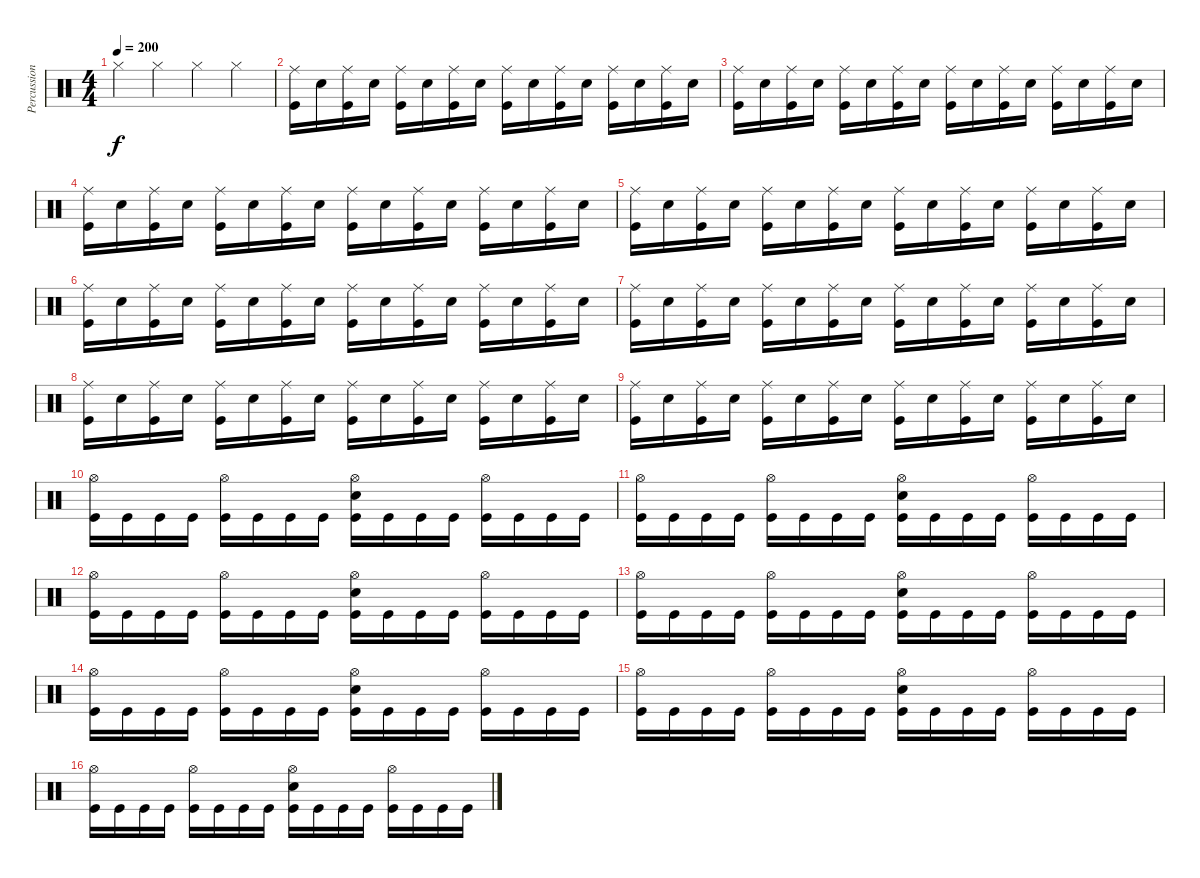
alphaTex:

\track ("Percussion" "Percussion") {instrument percussion}
\staff {score}
\articulation defaults
\ts (4 4)
\tempo 200
\clef neutral
\ks c "Hi-Hat (closed)".4{dy f} "Hi-Hat (closed)".4 "Hi-Hat (closed)".4 "Hi-Hat (closed)".4
|
("Ride (middle)" "Kick (hit)").16 "Electric Snare (hit)".16 ("Ride (middle)" "Kick (hit)").16 "Electric Snare (hit)".16 ("Ride (middle)" "Kick (hit)").16 "Electric Snare (hit)".16 ("Ride (middle)" "Kick (hit)").16 "Electric Snare (hit)".16 ("Ride (middle)" "Kick (hit)").16 "Electric Snare (hit)".16 ("Ride (middle)" "Kick (hit)").16 "Electric Snare (hit)".16 ("Ride (middle)" "Kick (hit)").16 "Electric Snare (hit)".16 ("Ride (middle)" "Kick (hit)").16 "Electric Snare (hit)".16 |
("Ride (middle)" "Kick (hit)").16 "Electric Snare (hit)".16 ("Ride (middle)" "Kick (hit)").16 "Electric Snare (hit)".16 ("Ride (middle)" "Kick (hit)").16 "Electric Snare (hit)".16 ("Ride (middle)" "Kick (hit)").16 "Electric Snare (hit)".16 ("Ride (middle)" "Kick (hit)").16 "Electric Snare (hit)".16 ("Ride (middle)" "Kick (hit)").16 "Electric Snare (hit)".16 ("Ride (middle)" "Kick (hit)").16 "Electric Snare (hit)".16 ("Ride (middle)" "Kick (hit)").16 "Electric Snare (hit)".16 |
("Ride (middle)" "Kick (hit)").16 "Electric Snare (hit)".16 ("Ride (middle)" "Kick (hit)").16 "Electric Snare (hit)".16 ("Ride (middle)" "Kick (hit)").16 "Electric Snare (hit)".16 ("Ride (middle)" "Kick (hit)").16 "Electric Snare (hit)".16 ("Ride (middle)" "Kick (hit)").16 "Electric Snare (hit)".16 ("Ride (middle)" "Kick (hit)").16 "Electric Snare (hit)".16 ("Ride (middle)" "Kick (hit)").16 "Electric Snare (hit)".16 ("Ride (middle)" "Kick (hit)").16 "Electric Snare (hit)".16 |
("Ride (middle)" "Kick (hit)").16 "Electric Snare (hit)".16 ("Ride (middle)" "Kick (hit)").16 "Electric Snare (hit)".16 ("Ride (middle)" "Kick (hit)").16 "Electric Snare (hit)".16 ("Ride (middle)" "Kick (hit)").16 "Electric Snare (hit)".16 ("Ride (middle)" "Kick (hit)").16 "Electric Snare (hit)".16 ("Ride (middle)" "Kick (hit)").16 "Electric Snare (hit)".16 ("Ride (middle)" "Kick (hit)").16 "Electric Snare (hit)".16 ("Ride (middle)" "Kick (hit)").16 "Electric Snare (hit)".16 |
("Ride (middle)" "Kick (hit)").16 "Electric Snare (hit)".16 ("Ride (middle)" "Kick (hit)").16 "Electric Snare (hit)".16 ("Ride (middle)" "Kick (hit)").16 "Electric Snare (hit)".16 ("Ride (middle)" "Kick (hit)").16 "Electric Snare (hit)".16 ("Ride (middle)" "Kick (hit)").16 "Electric Snare (hit)".16 ("Ride (middle)" "Kick (hit)").16 "Electric Snare (hit)".16 ("Ride (middle)" "Kick (hit)").16 "Electric Snare (hit)".16 ("Ride (middle)" "Kick (hit)").16 "Electric Snare (hit)".16 |
("Ride (middle)" "Kick (hit)").16 "Electric Snare (hit)".16 ("Ride (middle)" "Kick (hit)").16 "Electric Snare (hit)".16 ("Ride (middle)" "Kick (hit)").16 "Electric Snare (hit)".16 ("Ride (middle)" "Kick (hit)").16 "Electric Snare (hit)".16 ("Ride (middle)" "Kick (hit)").16 "Electric Snare (hit)".16 ("Ride (middle)" "Kick (hit)").16 "Electric Snare (hit)".16 ("Ride (middle)" "Kick (hit)").16 "Electric Snare (hit)".16 ("Ride (middle)" "Kick (hit)").16 "Electric Snare (hit)".16 |
("Ride (middle)" "Kick (hit)").16 "Electric Snare (hit)".16 ("Ride (middle)" "Kick (hit)").16 "Electric Snare (hit)".16 ("Ride (middle)" "Kick (hit)").16 "Electric Snare (hit)".16 ("Ride (middle)" "Kick (hit)").16 "Electric Snare (hit)".16 ("Ride (middle)" "Kick (hit)").16 "Electric Snare (hit)".16 ("Ride (middle)" "Kick (hit)").16 "Electric Snare (hit)".16 ("Ride (middle)" "Kick (hit)").16 "Electric Snare (hit)".16 ("Ride (middle)" "Kick (hit)").16 "Electric Snare (hit)".16 |
("Ride (middle)" "Kick (hit)").16 "Electric Snare (hit)".16 ("Ride (middle)" "Kick (hit)").16 "Electric Snare (hit)".16 ("Ride (middle)" "Kick (hit)").16 "Electric Snare (hit)".16 ("Ride (middle)" "Kick (hit)").16 "Electric Snare (hit)".16 ("Ride (middle)" "Kick (hit)").16 "Electric Snare (hit)".16 ("Ride (middle)" "Kick (hit)").16 "Electric Snare (hit)".16 ("Ride (middle)" "Kick (hit)").16 "Electric Snare (hit)".16 ("Ride (middle)" "Kick (hit)").16 "Electric Snare (hit)".16 |
("Hi-Hat (open)" "Kick (hit)").16 "Kick (hit)".16 "Kick (hit)".16 "Kick (hit)".16 ("Hi-Hat (open)" "Kick (hit)").16 "Kick (hit)".16 "Kick (hit)".16 "Kick (hit)".16 ("Hi-Hat (open)" "Electric Snare (hit)" "Kick (hit)").16 "Kick (hit)".16 "Kick (hit)".16 "Kick (hit)".16 ("Hi-Hat (open)" "Kick (hit)").16 "Kick (hit)".16 "Kick (hit)".16 "Kick (hit)".16 |
("Hi-Hat (open)" "Kick (hit)").16 "Kick (hit)".16 "Kick (hit)".16 "Kick (hit)".16 ("Hi-Hat (open)" "Kick (hit)").16 "Kick (hit)".16 "Kick (hit)".16 "Kick (hit)".16 ("Hi-Hat (open)" "Electric Snare (hit)" "Kick (hit)").16 "Kick (hit)".16 "Kick (hit)".16 "Kick (hit)".16 ("Hi-Hat (open)" "Kick (hit)").16 "Kick (hit)".16 "Kick (hit)".16 "Kick (hit)".16 |
("Hi-Hat (open)" "Kick (hit)").16 "Kick (hit)".16 "Kick (hit)".16 "Kick (hit)".16 ("Hi-Hat (open)" "Kick (hit)").16 "Kick (hit)".16 "Kick (hit)".16 "Kick (hit)".16 ("Hi-Hat (open)" "Electric Snare (hit)" "Kick (hit)").16 "Kick (hit)".16 "Kick (hit)".16 "Kick (hit)".16 ("Hi-Hat (open)" "Kick (hit)").16 "Kick (hit)".16 "Kick (hit)".16 "Kick (hit)".16 |
("Hi-Hat (open)" "Kick (hit)").16 "Kick (hit)".16 "Kick (hit)".16 "Kick (hit)".16 ("Hi-Hat (open)" "Kick (hit)").16 "Kick (hit)".16 "Kick (hit)".16 "Kick (hit)".16 ("Hi-Hat (open)" "Electric Snare (hit)" "Kick (hit)").16 "Kick (hit)".16 "Kick (hit)".16 "Kick (hit)".16 ("Hi-Hat (open)" "Kick (hit)").16 "Kick (hit)".16 "Kick (hit)".16 "Kick (hit)".16 |
("Hi-Hat (open)" "Kick (hit)").16 "Kick (hit)".16 "Kick (hit)".16 "Kick (hit)".16 ("Hi-Hat (open)" "Kick (hit)").16 "Kick (hit)".16 "Kick (hit)".16 "Kick (hit)".16 ("Hi-Hat (open)" "Electric Snare (hit)" "Kick (hit)").16 "Kick (hit)".16 "Kick (hit)".16 "Kick (hit)".16 ("Hi-Hat (open)" "Kick (hit)").16 "Kick (hit)".16 "Kick (hit)".16 "Kick (hit)".16 |
("Hi-Hat (open)" "Kick (hit)").16 "Kick (hit)".16 "Kick (hit)".16 "Kick (hit)".16 ("Hi-Hat (open)" "Kick (hit)").16 "Kick (hit)".16 "Kick (hit)".16 "Kick (hit)".16 ("Hi-Hat (open)" "Electric Snare (hit)" "Kick (hit)").16 "Kick (hit)".16 "Kick (hit)".16 "Kick (hit)".16 ("Hi-Hat (open)" "Kick (hit)").16 "Kick (hit)".16 "Kick (hit)".16 "Kick (hit)".16 |
("Hi-Hat (open)" "Kick (hit)").16 "Kick (hit)".16 "Kick (hit)".16 "Kick (hit)".16 ("Hi-Hat (open)" "Kick (hit)").16 "Kick (hit)".16 "Kick (hit)".16 "Kick (hit)".16 ("Hi-Hat (open)" "Electric Snare (hit)" "Kick (hit)").16 "Kick (hit)".16 "Kick (hit)".16 "Kick (hit)".16 ("Hi-Hat (open)" "Kick (hit)").16 "Kick (hit)".16 "Kick (hit)".16 "Kick (hit)".16
